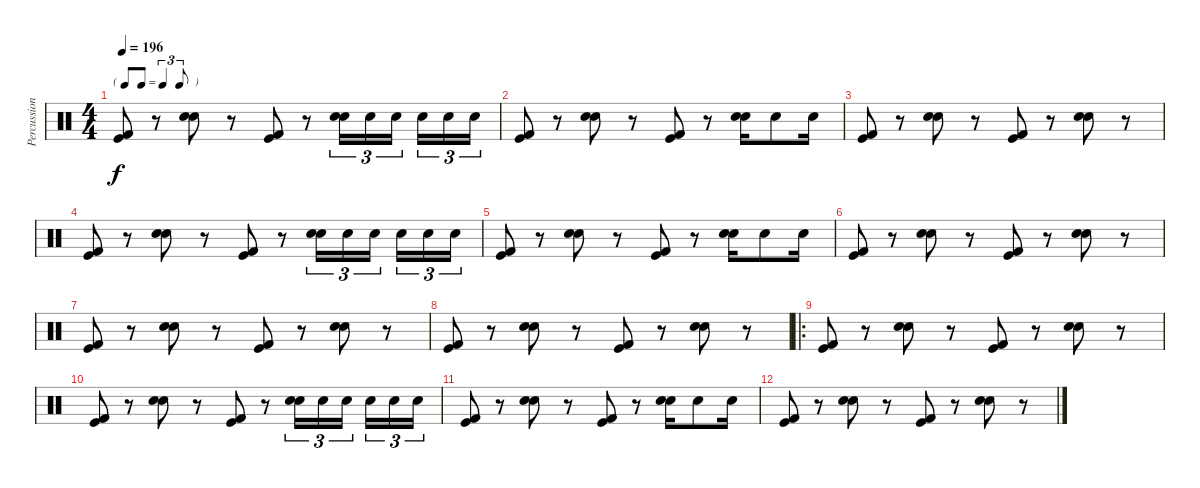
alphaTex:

\track ("Percussions" "Percussion") {instrument percussion}
\staff {score}
\articulation defaults
\ts (4 4)
\tf triplet8th
\tempo 196
\clef neutral
\ks c
("Kick (hit) 2" "Kick (hit)").8{dy f} r.8 ("Snare (hit) 2" "Electric Snare (hit)").8 r.8 ("Kick (hit) 2" "Kick (hit)").8 r.8 ("Hand Clap (hit)" "Electric Snare (hit)").16{tu (3 2)} "Hand Clap (hit)".16{tu (3 2)} "Hand Clap (hit)".16{tu (3 2)} "Hand Clap (hit)".16{tu (3 2)} "Hand Clap (hit)".16{tu (3 2)} "Hand Clap (hit)".16{tu (3 2)} |
("Kick (hit) 2" "Kick (hit)").8 r.8 ("Snare (hit) 2" "Electric Snare (hit)").8 r.8 ("Kick (hit) 2" "Kick (hit)").8 r.8 ("Snare (hit) 2" "Electric Snare (hit)").16 "Hand Clap (hit)".8 "Hand Clap (hit)".16 |
("Kick (hit) 2" "Kick (hit)").8 r.8 ("Snare (hit) 2" "Electric Snare (hit)").8 r.8 ("Kick (hit) 2" "Kick (hit)").8 r.8 ("Snare (hit) 2" "Electric Snare (hit)").8 r.8 |
("Kick (hit) 2" "Kick (hit)").8 r.8 ("Snare (hit) 2" "Electric Snare (hit)").8 r.8 ("Kick (hit) 2" "Kick (hit)").8 r.8 ("Hand Clap (hit)" "Electric Snare (hit)").16{tu (3 2)} "Hand Clap (hit)".16{tu (3 2)} "Hand Clap (hit)".16{tu (3 2)} "Hand Clap (hit)".16{tu (3 2)} "Hand Clap (hit)".16{tu (3 2)} "Hand Clap (hit)".16{tu (3 2)} |
("Kick (hit) 2" "Kick (hit)").8 r.8 ("Snare (hit) 2" "Electric Snare (hit)").8 r.8 ("Kick (hit) 2" "Kick (hit)").8 r.8 ("Snare (hit) 2" "Electric Snare (hit)").16 "Hand Clap (hit)".8 "Hand Clap (hit)".16 |
("Kick (hit) 2" "Kick (hit)").8 r.8 ("Snare (hit) 2" "Electric Snare (hit)").8 r.8 ("Kick (hit) 2" "Kick (hit)").8 r.8 ("Snare (hit) 2" "Electric Snare (hit)").8 r.8 |
("Kick (hit) 2" "Kick (hit)").8 r.8 ("Snare (hit) 2" "Electric Snare (hit)").8 r.8 ("Kick (hit) 2" "Kick (hit)").8 r.8 ("Snare (hit) 2" "Electric Snare (hit)").8 r.8 |
("Kick (hit) 2" "Kick (hit)").8 r.8 ("Snare (hit) 2" "Electric Snare (hit)").8 r.8 ("Kick (hit) 2" "Kick (hit)").8 r.8 ("Snare (hit) 2" "Electric Snare (hit)").8 r.8 |
\ro
("Kick (hit) 2" "Kick (hit)").8 r.8 ("Snare (hit) 2" "Electric Snare (hit)").8 r.8 ("Kick (hit) 2" "Kick (hit)").8 r.8 ("Snare (hit) 2" "Electric Snare (hit)").8 r.8 |
("Kick (hit) 2" "Kick (hit)").8 r.8 ("Snare (hit) 2" "Electric Snare (hit)").8 r.8 ("Kick (hit) 2" "Kick (hit)").8 r.8 ("Hand Clap (hit)" "Electric Snare (hit)").16{tu (3 2)} "Hand Clap (hit)".16{tu (3 2)} "Hand Clap (hit)".16{tu (3 2)} "Hand Clap (hit)".16{tu (3 2)} "Hand Clap (hit)".16{tu (3 2)} "Hand Clap (hit)".16{tu (3 2)} |
("Kick (hit) 2" "Kick (hit)").8 r.8 ("Snare (hit) 2" "Electric Snare (hit)").8 r.8 ("Kick (hit) 2" "Kick (hit)").8 r.8 ("Snare (hit) 2" "Electric Snare (hit)").16 "Hand Clap (hit)".8 "Hand Clap (hit)".16 |
("Kick (hit) 2" "Kick (hit)").8 r.8 ("Snare (hit) 2" "Electric Snare (hit)").8 r.8 ("Kick (hit) 2" "Kick (hit)").8 r.8 ("Snare (hit) 2" "Electric Snare (hit)").8 r.8
